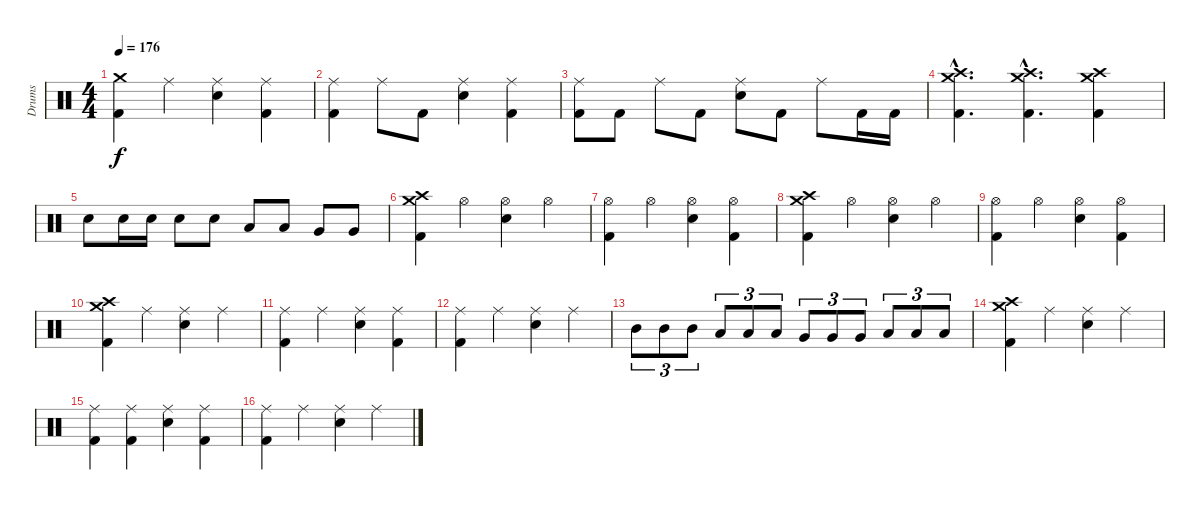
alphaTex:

\track ("Drums" "Drums") {instrument percussion}
\staff {score}
\articulation defaults
\ts (4 4)
\tempo 176
\clef neutral
\ks c
("Crash medium (hit)" "Kick (hit) 2").4{dy f} "Ride (middle)".4 ("Ride (middle)" "Snare (hit) 2").4 ("Ride (middle)" "Kick (hit) 2").4 |
("Ride (middle)" "Kick (hit) 2").4 "Ride (middle)".8 "Kick (hit) 2".8 ("Ride (middle)" "Snare (hit) 2").4 ("Ride (middle)" "Kick (hit) 2").4 |
("Ride (middle)" "Kick (hit) 2").8 "Kick (hit) 2".8 "Ride (middle)".8 "Kick (hit) 2".8 ("Ride (middle)" "Snare (hit) 2").8 "Kick (hit) 2".8 "Ride (middle)".8 "Kick (hit) 2".16 "Kick (hit) 2".16 |
("Crash medium (hit)"{hac} "Crash high (hit)"{hac} "Kick (hit) 2"{hac}).4{d} ("Crash medium (hit)"{hac} "Crash high (hit)"{hac} "Kick (hit) 2"{hac}).4{d} ("Crash medium (hit)" "Crash high (hit)" "Kick (hit) 2").4 |
"Snare (hit) 2".8 "Snare (hit) 2".16 "Snare (hit) 2".16 "Snare (hit) 2".8 "Snare (hit) 2".8 "Low Tom (hit)".8 "Low Tom (hit)".8 "Very Low Tom (hit)".8 "Very Low Tom (hit)".8 |
("Crash high (hit)" "Crash medium (hit)" "Kick (hit) 2").4 "Hi-Hat (open)".4 ("Hi-Hat (open)" "Snare (hit) 2").4 "Hi-Hat (open)".4 |
("Hi-Hat (open)" "Kick (hit) 2").4 "Hi-Hat (open)".4 ("Hi-Hat (open)" "Snare (hit) 2").4 ("Hi-Hat (open)" "Kick (hit) 2").4 |
("Crash high (hit)" "Crash medium (hit)" "Kick (hit) 2").4 "Hi-Hat (open)".4 ("Hi-Hat (open)" "Snare (hit) 2").4 "Hi-Hat (open)".4 |
("Hi-Hat (open)" "Kick (hit) 2").4 "Hi-Hat (open)".4 ("Hi-Hat (open)" "Snare (hit) 2").4 ("Hi-Hat (open)" "Kick (hit) 2").4 |
("Crash medium (hit)" "Crash high (hit)" "Kick (hit) 2").4 "Ride (middle)".4 ("Ride (middle)" "Snare (hit) 2").4 "Ride (middle)".4 |
("Ride (middle)" "Kick (hit) 2").4 "Ride (middle)".4 ("Ride (middle)" "Snare (hit) 2").4 ("Ride (middle)" "Kick (hit) 2").4 |
("Ride (middle)" "Kick (hit) 2").4 "Ride (middle)".4 ("Ride (middle)" "Snare (hit) 2").4 "Ride (middle)".4 |
"Mid Tom (hit)".8{tu (3 2)} "Mid Tom (hit)".8{tu (3 2)} "Mid Tom (hit)".8{tu (3 2)} "Low Tom (hit)".8{tu (3 2)} "Low Tom (hit)".8{tu (3 2)} "Low Tom (hit)".8{tu (3 2)} "Very Low Tom (hit)".8{tu (3 2)} "Very Low Tom (hit)".8{tu (3 2)} "Very Low Tom (hit)".8{tu (3 2)} "Low Floor Tom (hit)".8{tu (3 2)} "Low Floor Tom (hit)".8{tu (3 2)} "Low Floor Tom (hit)".8{tu (3 2)} |
("Crash medium (hit)" "Crash high (hit)" "Kick (hit) 2").4 "Ride (middle)".4 ("Ride (middle)" "Snare (hit) 2").4 "Ride (middle)".4 |
("Ride (middle)" "Kick (hit) 2").4 ("Ride (middle)" "Kick (hit) 2").4 ("Ride (middle)" "Snare (hit) 2").4 ("Ride (middle)" "Kick (hit) 2").4 |
("Ride (middle)" "Kick (hit) 2").4 "Ride (middle)".4 ("Ride (middle)" "Snare (hit) 2").4 "Ride (middle)".4
